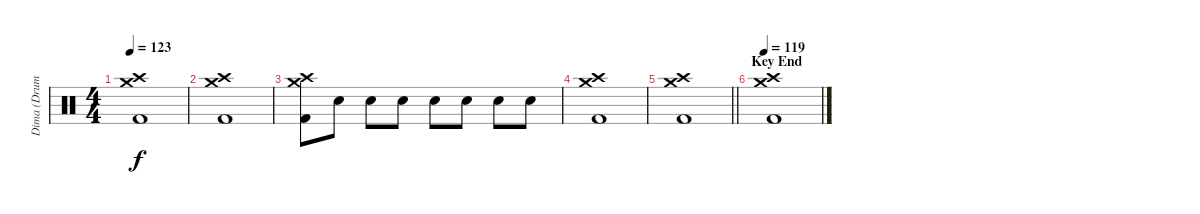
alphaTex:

\track ("Dima (Drums)" "Dima (Drum") {instrument percussion}
\staff {score}
\articulation defaults
\ts (4 4)
\tempo 123
\clef neutral
\ks c
("Crash high (hit)" "Crash medium (hit)" "Kick (hit) 2").1{dy f} |
("Crash high (hit)" "Crash medium (hit)" "Kick (hit) 2").1 |
("Crash high (hit)" "Crash medium (hit)" "Kick (hit) 2").8 "Snare (hit) 2".8 "Snare (hit) 2".8 "Snare (hit) 2".8 "Snare (hit) 2".8 "Snare (hit) 2".8 "Snare (hit) 2".8 "Snare (hit) 2".8 |
("Crash high (hit)" "Crash medium (hit)" "Kick (hit) 2").1 |
\barLineRight lightlight
("Crash high (hit)" "Crash medium (hit)" "Kick (hit) 2").1 |
\section ("" "Key End")
\tempo 119
("Crash high (hit)" "Crash medium (hit)" "Kick (hit) 2").1
